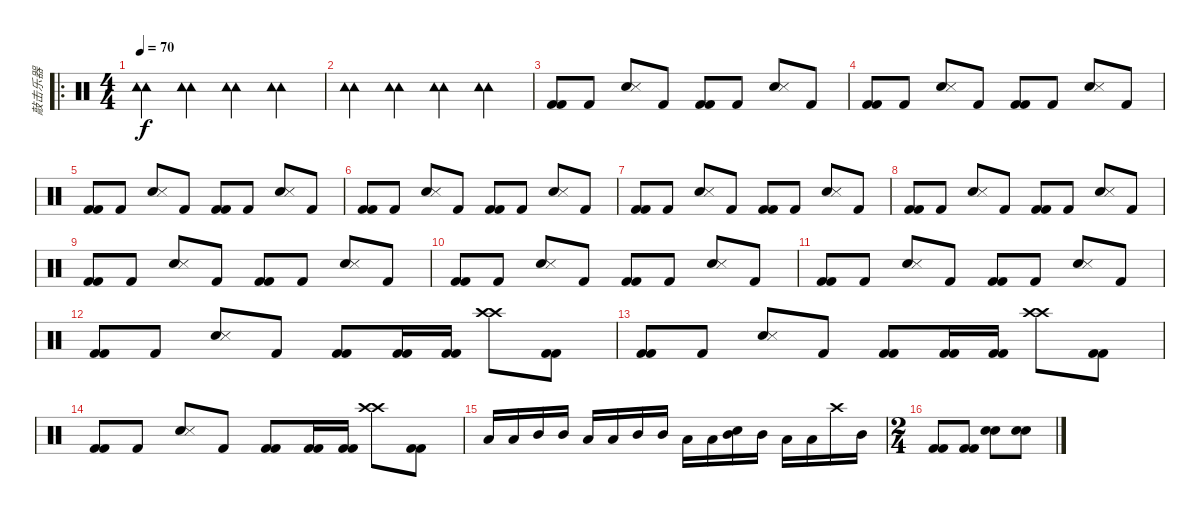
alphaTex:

\track ("敲击乐器" "敲击乐器") {instrument percussion}
\staff {score}
\articulation defaults
\ro
\ts (4 4)
\tempo 70
\clef neutral
\ks c
("Tambourine (hit)" "Tambourine (hit)").4{dy f} ("Tambourine (hit)" "Tambourine (hit)").4 ("Tambourine (hit)" "Tambourine (hit)").4 ("Tambourine (hit)" "Tambourine (hit)").4 |
("Tambourine (hit)" "Tambourine (hit)").4 ("Tambourine (hit)" "Tambourine (hit)").4 ("Tambourine (hit)" "Tambourine (hit)").4 ("Tambourine (hit)" "Tambourine (hit)").4 |
("Kick (hit) 2" "Kick (hit) 2").8 "Kick (hit) 2".8 ("Snare (hit) 2" "Snare (side stick) 3").8 "Kick (hit) 2".8 ("Kick (hit) 2" "Kick (hit) 2").8 "Kick (hit) 2".8 ("Snare (hit) 2" "Snare (side stick) 3").8 "Kick (hit) 2".8 |
("Kick (hit) 2" "Kick (hit) 2").8 "Kick (hit) 2".8 ("Snare (hit) 2" "Snare (side stick) 3").8 "Kick (hit) 2".8 ("Kick (hit) 2" "Kick (hit) 2").8 "Kick (hit) 2".8 ("Snare (hit) 2" "Snare (side stick) 3").8 "Kick (hit) 2".8 |
("Kick (hit) 2" "Kick (hit) 2").8 "Kick (hit) 2".8 ("Snare (hit) 2" "Snare (side stick) 3").8 "Kick (hit) 2".8 ("Kick (hit) 2" "Kick (hit) 2").8 "Kick (hit) 2".8 ("Snare (hit) 2" "Snare (side stick) 3").8 "Kick (hit) 2".8 |
("Kick (hit) 2" "Kick (hit) 2").8 "Kick (hit) 2".8 ("Snare (hit) 2" "Snare (side stick) 3").8 "Kick (hit) 2".8 ("Kick (hit) 2" "Kick (hit) 2").8 "Kick (hit) 2".8 ("Snare (hit) 2" "Snare (side stick) 3").8 "Kick (hit) 2".8 |
("Kick (hit) 2" "Kick (hit) 2").8 "Kick (hit) 2".8 ("Snare (hit) 2" "Snare (side stick) 3").8 "Kick (hit) 2".8 ("Kick (hit) 2" "Kick (hit) 2").8 "Kick (hit) 2".8 ("Snare (hit) 2" "Snare (side stick) 3").8 "Kick (hit) 2".8 |
("Kick (hit) 2" "Kick (hit) 2").8 "Kick (hit) 2".8 ("Snare (hit) 2" "Snare (side stick) 3").8 "Kick (hit) 2".8 ("Kick (hit) 2" "Kick (hit) 2").8 "Kick (hit) 2".8 ("Snare (hit) 2" "Snare (side stick) 3").8 "Kick (hit) 2".8 |
("Kick (hit) 2" "Kick (hit) 2").8 "Kick (hit) 2".8 ("Snare (hit) 2" "Snare (side stick) 3").8 "Kick (hit) 2".8 ("Kick (hit) 2" "Kick (hit) 2").8 "Kick (hit) 2".8 ("Snare (hit) 2" "Snare (side stick) 3").8 "Kick (hit) 2".8 |
("Kick (hit) 2" "Kick (hit) 2").8 "Kick (hit) 2".8 ("Snare (hit) 2" "Snare (side stick) 3").8 "Kick (hit) 2".8 ("Kick (hit) 2" "Kick (hit) 2").8 "Kick (hit) 2".8 ("Snare (hit) 2" "Snare (side stick) 3").8 "Kick (hit) 2".8 |
("Kick (hit) 2" "Kick (hit) 2").8 "Kick (hit) 2".8 ("Snare (hit) 2" "Snare (side stick) 3").8 "Kick (hit) 2".8 ("Kick (hit) 2" "Kick (hit) 2").8 "Kick (hit) 2".8 ("Snare (hit) 2" "Snare (side stick) 3").8 "Kick (hit) 2".8 |
("Kick (hit) 2" "Kick (hit) 2").8 "Kick (hit) 2".8 ("Snare (hit) 2" "Snare (side stick) 3").8 "Kick (hit) 2".8 ("Kick (hit) 2" "Kick (hit) 2").8 ("Kick (hit) 2" "Kick (hit) 2").16 ("Kick (hit) 2" "Kick (hit) 2").16 ("Crash high (hit)" "Crash high (hit)").8 ("Kick (hit) 2" "Kick (hit) 2").8 |
("Kick (hit) 2" "Kick (hit) 2").8 "Kick (hit) 2".8 ("Snare (hit) 2" "Snare (side stick) 3").8 "Kick (hit) 2".8 ("Kick (hit) 2" "Kick (hit) 2").8 ("Kick (hit) 2" "Kick (hit) 2").16 ("Kick (hit) 2" "Kick (hit) 2").16 ("Crash high (hit)" "Crash high (hit)").8 ("Kick (hit) 2" "Kick (hit) 2").8 |
("Kick (hit) 2" "Kick (hit) 2").8 "Kick (hit) 2".8 ("Snare (hit) 2" "Snare (side stick) 3").8 "Kick (hit) 2".8 ("Kick (hit) 2" "Kick (hit) 2").8 ("Kick (hit) 2" "Kick (hit) 2").16 ("Kick (hit) 2" "Kick (hit) 2").16 ("Crash high (hit)" "Crash high (hit)").8 ("Kick (hit) 2" "Kick (hit) 2").8 |
"Low Tom (hit)".16 "Low Tom (hit)".16 "Mid Tom (hit)".16 "Mid Tom (hit)".16 "Low Tom (hit)".16 "Low Tom (hit)".16 "Mid Tom (hit)".16 "Mid Tom (hit)".16 "Low Tom (hit)".16 "Low Tom (hit)".16 ("Snare (hit)" "Mid Tom (hit)").16 "Mid Tom (hit)".16 "Low Tom (hit)".16 "Low Tom (hit)".16 "Crash high (hit)".16 "Mid Tom (hit)".16 |
\ts (2 4)
("Kick (hit) 2" "Kick (hit) 2").8 ("Kick (hit) 2" "Kick (hit) 2").8 ("Snare (hit) 2" "Snare (hit) 2").8 ("Snare (hit) 2" "Snare (hit) 2").8
